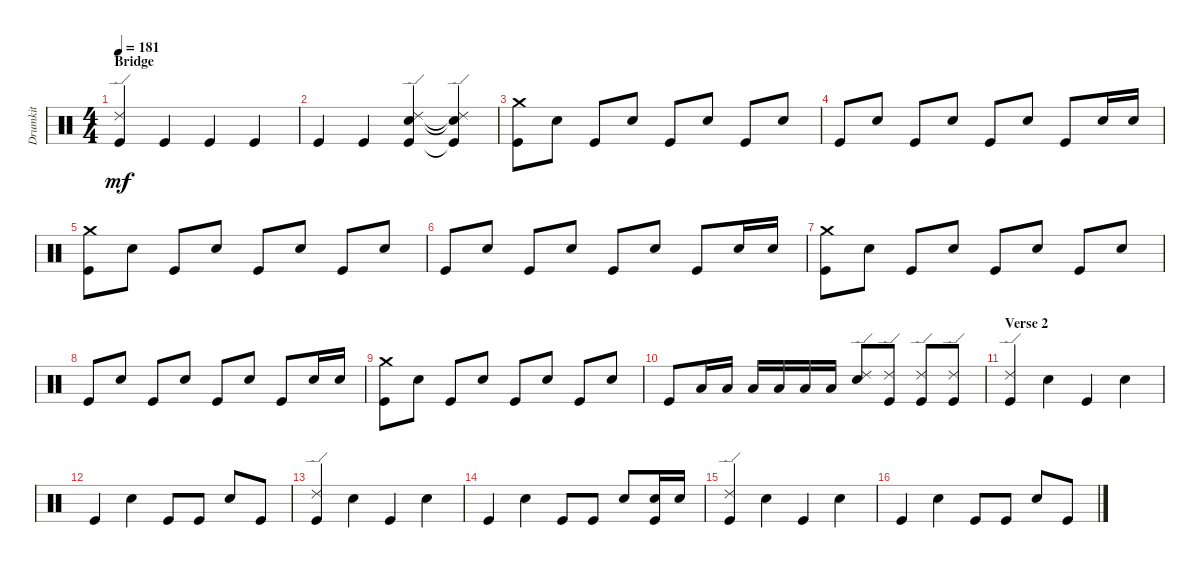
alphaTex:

\track ("Drumkit" "Drumkit") {instrument percussion}
\staff {score}
\articulation defaults
\ts (4 4)
\section ("" "Bridge")
\tempo 181
\clef neutral
\ks c
("Kick (hit)" "Ride (edge) 2").4{dy mf} "Kick (hit)".4 "Kick (hit)".4 "Kick (hit)".4 |
"Kick (hit)".4 "Kick (hit)".4 ("Kick (hit)" "Snare (hit) 2" "Ride (edge) 2").4 ("Kick (hit)"{t} "Snare (hit) 2"{t} "Ride (edge) 2"{t}).4 |
("Kick (hit)" "Crash medium (hit)").8 "Snare (hit) 2".8 "Kick (hit)".8 "Snare (hit) 2".8 "Kick (hit)".8 "Snare (hit) 2".8 "Kick (hit)".8 "Snare (hit) 2".8 |
"Kick (hit)".8 "Snare (hit) 2".8 "Kick (hit)".8 "Snare (hit) 2".8 "Kick (hit)".8 "Snare (hit) 2".8 "Kick (hit)".8 "Snare (hit) 2".16 "Snare (hit) 2".16 |
("Kick (hit)" "Crash medium (hit)").8 "Snare (hit) 2".8 "Kick (hit)".8 "Snare (hit) 2".8 "Kick (hit)".8 "Snare (hit) 2".8 "Kick (hit)".8 "Snare (hit) 2".8 |
"Kick (hit)".8 "Snare (hit) 2".8 "Kick (hit)".8 "Snare (hit) 2".8 "Kick (hit)".8 "Snare (hit) 2".8 "Kick (hit)".8 "Snare (hit) 2".16 "Snare (hit) 2".16 |
("Kick (hit)" "Crash medium (hit)").8 "Snare (hit) 2".8 "Kick (hit)".8 "Snare (hit) 2".8 "Kick (hit)".8 "Snare (hit) 2".8 "Kick (hit)".8 "Snare (hit) 2".8 |
"Kick (hit)".8 "Snare (hit) 2".8 "Kick (hit)".8 "Snare (hit) 2".8 "Kick (hit)".8 "Snare (hit) 2".8 "Kick (hit)".8 "Snare (hit) 2".16 "Snare (hit) 2".16 |
("Kick (hit)" "Crash medium (hit)").8 "Snare (hit) 2".8 "Kick (hit)".8 "Snare (hit) 2".8 "Kick (hit)".8 "Snare (hit) 2".8 "Kick (hit)".8 "Snare (hit) 2".8 |
"Kick (hit)".8 "Low Tom (hit)".16 "Low Tom (hit)".16 "Low Tom (hit)".16 "Low Tom (hit)".16 "Low Tom (hit)".16 "Low Tom (hit)".16 ("Snare (hit) 2" "Ride (edge) 2").8 ("Ride (edge) 2" "Kick (hit)").8 ("Ride (edge) 2" "Kick (hit)").8 ("Ride (edge) 2" "Kick (hit)").8 |
\section ("" "Verse 2")
("Kick (hit)" "Ride (edge) 2").4 "Snare (hit) 2".4 "Kick (hit)".4 "Snare (hit) 2".4 |
"Kick (hit)".4 "Snare (hit) 2".4 "Kick (hit)".8 "Kick (hit)".8 "Snare (hit) 2".8 "Kick (hit)".8 |
("Kick (hit)" "Ride (edge) 2").4 "Snare (hit) 2".4 "Kick (hit)".4 "Snare (hit) 2".4 |
"Kick (hit)".4 "Snare (hit) 2".4 "Kick (hit)".8 "Kick (hit)".8 "Snare (hit) 2".8 ("Kick (hit)" "Snare (hit) 2").16 "Snare (hit) 2".16 |
("Kick (hit)" "Ride (edge) 2").4 "Snare (hit) 2".4 "Kick (hit)".4 "Snare (hit) 2".4 |
"Kick (hit)".4 "Snare (hit) 2".4 "Kick (hit)".8 "Kick (hit)".8 "Snare (hit) 2".8 "Kick (hit)".8
